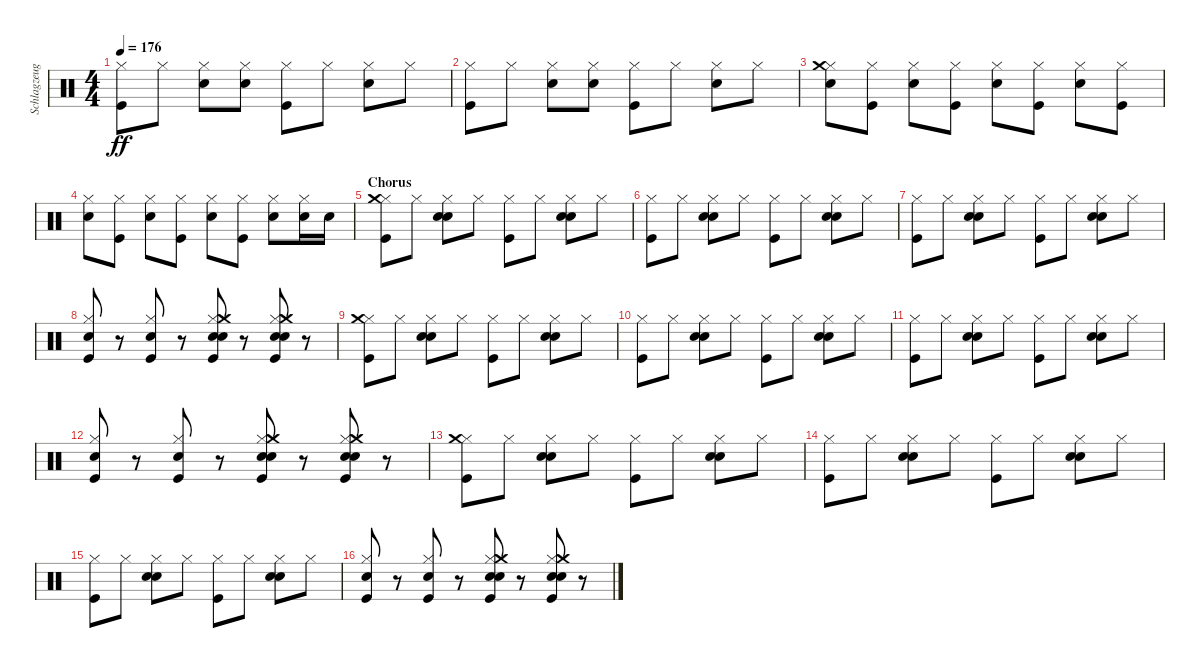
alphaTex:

\track ("Schlagzeug - Bela B." "Schlagzeug") {instrument percussion}
\staff {score}
\articulation defaults
\ts (4 4)
\tempo 176
\clef neutral
\ks c
("Kick (hit)" "Hi-Hat (closed)").8{dy ff} "Hi-Hat (closed)".8 ("Electric Snare (hit)" "Hi-Hat (closed)").8 ("Hi-Hat (closed)" "Electric Snare (hit)").8 ("Hi-Hat (closed)" "Kick (hit)").8 "Hi-Hat (closed)".8 ("Hi-Hat (closed)" "Electric Snare (hit)").8 "Hi-Hat (closed)".8 |
("Kick (hit)" "Hi-Hat (closed)").8 "Hi-Hat (closed)".8 ("Electric Snare (hit)" "Hi-Hat (closed)").8 ("Hi-Hat (closed)" "Electric Snare (hit)").8 ("Hi-Hat (closed)" "Kick (hit)").8 "Hi-Hat (closed)".8 ("Hi-Hat (closed)" "Electric Snare (hit)").8 "Hi-Hat (closed)".8 |
("Electric Snare (hit)" "Hi-Hat (closed)" "Crash medium (hit)").8 ("Kick (hit)" "Hi-Hat (closed)").8 ("Electric Snare (hit)" "Hi-Hat (closed)").8 ("Kick (hit)" "Hi-Hat (closed)").8 ("Electric Snare (hit)" "Hi-Hat (closed)").8 ("Kick (hit)" "Hi-Hat (closed)").8 ("Electric Snare (hit)" "Hi-Hat (closed)").8 ("Kick (hit)" "Hi-Hat (closed)").8 |
("Electric Snare (hit)" "Hi-Hat (closed)").8 ("Kick (hit)" "Hi-Hat (closed)").8 ("Electric Snare (hit)" "Hi-Hat (closed)").8 ("Kick (hit)" "Hi-Hat (closed)").8 ("Electric Snare (hit)" "Hi-Hat (closed)").8 ("Kick (hit)" "Hi-Hat (closed)").8 ("Electric Snare (hit)" "Hi-Hat (closed)").8 ("Electric Snare (hit)" "Hi-Hat (closed)").16 "Electric Snare (hit)".16 |
\section ("" "Chorus")
("Kick (hit)" "Hi-Hat (closed)" "Crash medium (hit)").8 "Hi-Hat (closed)".8 ("Hi-Hat (closed)" "Hand Clap (hit)" "Electric Snare (hit)").8 "Hi-Hat (closed)".8 ("Hi-Hat (closed)" "Kick (hit)").8 "Hi-Hat (closed)".8 ("Hi-Hat (closed)" "Hand Clap (hit)" "Electric Snare (hit)").8 "Hi-Hat (closed)".8 |
("Kick (hit)" "Hi-Hat (closed)").8 "Hi-Hat (closed)".8 ("Hi-Hat (closed)" "Hand Clap (hit)" "Electric Snare (hit)").8 "Hi-Hat (closed)".8 ("Hi-Hat (closed)" "Kick (hit)").8 "Hi-Hat (closed)".8 ("Hi-Hat (closed)" "Hand Clap (hit)" "Electric Snare (hit)").8 "Hi-Hat (closed)".8 |
("Kick (hit)" "Hi-Hat (closed)").8 "Hi-Hat (closed)".8 ("Hi-Hat (closed)" "Hand Clap (hit)" "Electric Snare (hit)").8 "Hi-Hat (closed)".8 ("Hi-Hat (closed)" "Kick (hit)").8 "Hi-Hat (closed)".8 ("Hi-Hat (closed)" "Hand Clap (hit)" "Electric Snare (hit)").8 "Hi-Hat (closed)".8 |
("Kick (hit)" "Hi-Hat (closed)" "Electric Snare (hit)").8 r.8 ("Kick (hit)" "Hi-Hat (closed)" "Electric Snare (hit)").8 r.8 ("Hand Clap (hit)" "Kick (hit)" "Hi-Hat (closed)" "Electric Snare (hit)" "Crash medium (hit)").8 r.8 ("Hi-Hat (closed)" "Hand Clap (hit)" "Electric Snare (hit)" "Kick (hit)" "Crash medium (hit)").8 r.8 |
("Kick (hit)" "Hi-Hat (closed)" "Crash medium (hit)").8 "Hi-Hat (closed)".8 ("Hi-Hat (closed)" "Hand Clap (hit)" "Electric Snare (hit)").8 "Hi-Hat (closed)".8 ("Hi-Hat (closed)" "Kick (hit)").8 "Hi-Hat (closed)".8 ("Hi-Hat (closed)" "Hand Clap (hit)" "Electric Snare (hit)").8 "Hi-Hat (closed)".8 |
("Kick (hit)" "Hi-Hat (closed)").8 "Hi-Hat (closed)".8 ("Hi-Hat (closed)" "Hand Clap (hit)" "Electric Snare (hit)").8 "Hi-Hat (closed)".8 ("Hi-Hat (closed)" "Kick (hit)").8 "Hi-Hat (closed)".8 ("Hi-Hat (closed)" "Hand Clap (hit)" "Electric Snare (hit)").8 "Hi-Hat (closed)".8 |
("Kick (hit)" "Hi-Hat (closed)").8 "Hi-Hat (closed)".8 ("Hi-Hat (closed)" "Hand Clap (hit)" "Electric Snare (hit)").8 "Hi-Hat (closed)".8 ("Hi-Hat (closed)" "Kick (hit)").8 "Hi-Hat (closed)".8 ("Hi-Hat (closed)" "Hand Clap (hit)" "Electric Snare (hit)").8 "Hi-Hat (closed)".8 |
("Kick (hit)" "Hi-Hat (closed)" "Electric Snare (hit)").8 r.8 ("Kick (hit)" "Hi-Hat (closed)" "Electric Snare (hit)").8 r.8 ("Hand Clap (hit)" "Kick (hit)" "Hi-Hat (closed)" "Electric Snare (hit)" "Crash medium (hit)").8 r.8 ("Hi-Hat (closed)" "Hand Clap (hit)" "Electric Snare (hit)" "Kick (hit)" "Crash medium (hit)").8 r.8 |
("Kick (hit)" "Hi-Hat (closed)" "Crash medium (hit)").8 "Hi-Hat (closed)".8 ("Hi-Hat (closed)" "Hand Clap (hit)" "Electric Snare (hit)").8 "Hi-Hat (closed)".8 ("Hi-Hat (closed)" "Kick (hit)").8 "Hi-Hat (closed)".8 ("Hi-Hat (closed)" "Hand Clap (hit)" "Electric Snare (hit)").8 "Hi-Hat (closed)".8 |
("Kick (hit)" "Hi-Hat (closed)").8 "Hi-Hat (closed)".8 ("Hi-Hat (closed)" "Hand Clap (hit)" "Electric Snare (hit)").8 "Hi-Hat (closed)".8 ("Hi-Hat (closed)" "Kick (hit)").8 "Hi-Hat (closed)".8 ("Hi-Hat (closed)" "Hand Clap (hit)" "Electric Snare (hit)").8 "Hi-Hat (closed)".8 |
("Kick (hit)" "Hi-Hat (closed)").8 "Hi-Hat (closed)".8 ("Hi-Hat (closed)" "Hand Clap (hit)" "Electric Snare (hit)").8 "Hi-Hat (closed)".8 ("Hi-Hat (closed)" "Kick (hit)").8 "Hi-Hat (closed)".8 ("Hi-Hat (closed)" "Hand Clap (hit)" "Electric Snare (hit)").8 "Hi-Hat (closed)".8 |
("Kick (hit)" "Hi-Hat (closed)" "Electric Snare (hit)").8 r.8 ("Kick (hit)" "Hi-Hat (closed)" "Electric Snare (hit)").8 r.8 ("Hand Clap (hit)" "Kick (hit)" "Hi-Hat (closed)" "Electric Snare (hit)" "Crash medium (hit)").8 r.8 ("Hi-Hat (closed)" "Hand Clap (hit)" "Electric Snare (hit)" "Kick (hit)" "Crash medium (hit)").8 r.8
